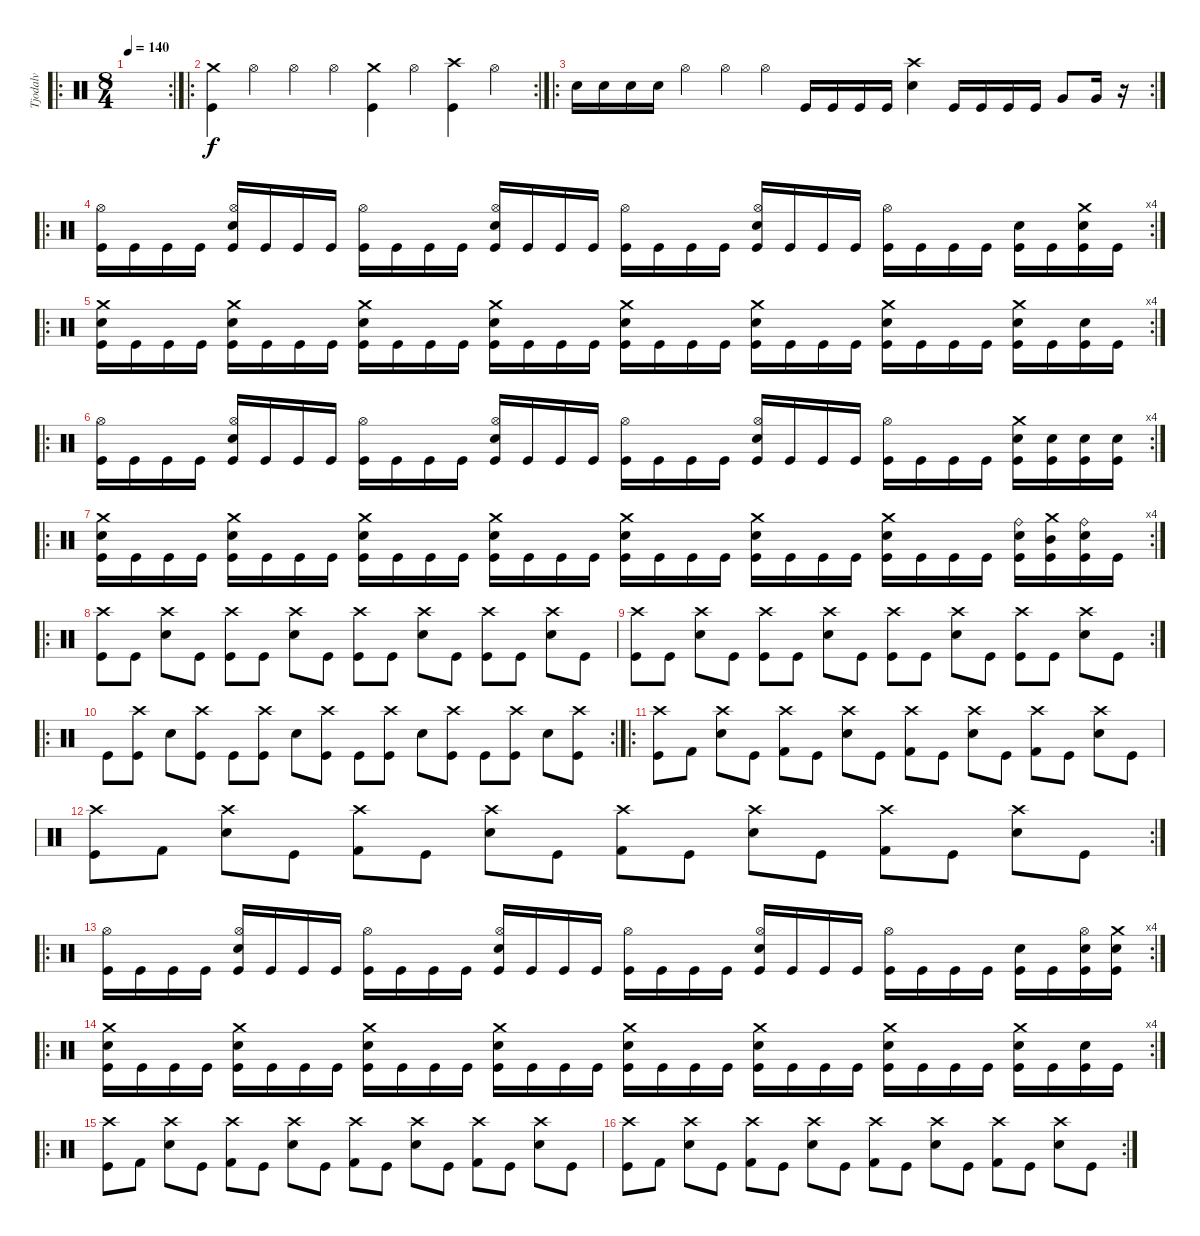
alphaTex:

\track ("Tjodalv" "Tjodalv") {instrument percussion}
\staff {score}
\articulation defaults
\ro
\rc 2
\ts (8 4)
\tempo 140
\clef neutral
\ks c
|
\ro
\rc 2
("Crash medium (hit)" "Kick (hit)").4 "Hi-Hat (open)".4 "Hi-Hat (open)".4 "Hi-Hat (open)".4 ("Crash medium (hit)" "Kick (hit)").4 "Hi-Hat (open)".4 ("Crash high (hit)" "Kick (hit)").4 "Hi-Hat (open)".4 |
\ro
\rc 2 "Electric Snare (hit)".16 "Electric Snare (hit)".16 "Electric Snare (hit)".16 "Electric Snare (hit)".16 "Hi-Hat (open)".4 "Hi-Hat (open)".4 "Hi-Hat (open)".4 "Kick (hit)".16 "Kick (hit)".16 "Kick (hit)".16 "Kick (hit)".16
("Crash high (hit)" "Electric Snare (hit)").4 "Kick (hit)".16 "Kick (hit)".16 "Kick (hit)".16 "Kick (hit)".16 "Very Low Tom (hit)".8 "Very Low Tom (hit)".16 r.16 |
\ro
\rc 4
("Hi-Hat (open)" "Kick (hit)").16 "Kick (hit)".16 "Kick (hit)".16 "Kick (hit)".16 ("Electric Snare (hit)" "Hi-Hat (open)" "Kick (hit)").16 "Kick (hit)".16 "Kick (hit)".16 "Kick (hit)".16 ("Hi-Hat (open)" "Kick (hit)").16 "Kick (hit)".16 "Kick (hit)".16 "Kick (hit)".16 ("Electric Snare (hit)" "Hi-Hat (open)" "Kick (hit)").16 "Kick (hit)".16 "Kick (hit)".16 "Kick (hit)".16 ("Hi-Hat (open)" "Kick (hit)").16 "Kick (hit)".16 "Kick (hit)".16 "Kick (hit)".16 ("Electric Snare (hit)" "Hi-Hat (open)" "Kick (hit)").16 "Kick (hit)".16 "Kick (hit)".16 "Kick (hit)".16 ("Hi-Hat (open)" "Kick (hit)").16 "Kick (hit)".16 "Kick (hit)".16 "Kick (hit)".16 ("Electric Snare (hit)" "Kick (hit)").16 "Kick (hit)".16 ("Crash medium (hit)" "Electric Snare (hit)" "Kick (hit)").16 "Kick (hit)".16 |
\ro
\rc 4
("Crash medium (hit)" "Electric Snare (hit)" "Kick (hit)").16 "Kick (hit)".16 "Kick (hit)".16 "Kick (hit)".16 ("Crash medium (hit)" "Electric Snare (hit)" "Kick (hit)").16 "Kick (hit)".16 "Kick (hit)".16 "Kick (hit)".16 ("Crash medium (hit)" "Electric Snare (hit)" "Kick (hit)").16 "Kick (hit)".16 "Kick (hit)".16 "Kick (hit)".16 ("Crash medium (hit)" "Electric Snare (hit)" "Kick (hit)").16 "Kick (hit)".16 "Kick (hit)".16 "Kick (hit)".16 ("Crash medium (hit)" "Electric Snare (hit)" "Kick (hit)").16 "Kick (hit)".16 "Kick (hit)".16 "Kick (hit)".16 ("Crash medium (hit)" "Electric Snare (hit)" "Kick (hit)").16 "Kick (hit)".16 "Kick (hit)".16 "Kick (hit)".16 ("Crash medium (hit)" "Electric Snare (hit)" "Kick (hit)").16 "Kick (hit)".16 "Kick (hit)".16 "Kick (hit)".16 ("Crash medium (hit)" "Electric Snare (hit)" "Kick (hit)").16 "Kick (hit)".16 ("Electric Snare (hit)" "Kick (hit)").16 "Kick (hit)".16 |
\ro
\rc 4
("Hi-Hat (open)" "Kick (hit)").16 "Kick (hit)".16 "Kick (hit)".16 "Kick (hit)".16 ("Electric Snare (hit)" "Hi-Hat (open)" "Kick (hit)").16 "Kick (hit)".16 "Kick (hit)".16 "Kick (hit)".16 ("Hi-Hat (open)" "Kick (hit)").16 "Kick (hit)".16 "Kick (hit)".16 "Kick (hit)".16 ("Electric Snare (hit)" "Hi-Hat (open)" "Kick (hit)").16 "Kick (hit)".16 "Kick (hit)".16 "Kick (hit)".16 ("Hi-Hat (open)" "Kick (hit)").16 "Kick (hit)".16 "Kick (hit)".16 "Kick (hit)".16 ("Electric Snare (hit)" "Hi-Hat (open)" "Kick (hit)").16 "Kick (hit)".16 "Kick (hit)".16 "Kick (hit)".16 ("Hi-Hat (open)" "Kick (hit)").16 "Kick (hit)".16 "Kick (hit)".16 "Kick (hit)".16 ("Crash medium (hit)" "Electric Snare (hit)" "Kick (hit)").16 ("Electric Snare (hit)" "Kick (hit)").16 ("Electric Snare (hit)" "Kick (hit)").16 ("Electric Snare (hit)" "Kick (hit)").16 |
\ro
\rc 4
("Crash medium (hit)" "Electric Snare (hit)" "Kick (hit)").16 "Kick (hit)".16 "Kick (hit)".16 "Kick (hit)".16 ("Crash medium (hit)" "Electric Snare (hit)" "Kick (hit)").16 "Kick (hit)".16 "Kick (hit)".16 "Kick (hit)".16 ("Crash medium (hit)" "Electric Snare (hit)" "Kick (hit)").16 "Kick (hit)".16 "Kick (hit)".16 "Kick (hit)".16 ("Crash medium (hit)" "Electric Snare (hit)" "Kick (hit)").16 "Kick (hit)".16 "Kick (hit)".16 "Kick (hit)".16 ("Crash medium (hit)" "Electric Snare (hit)" "Kick (hit)").16 "Kick (hit)".16 "Kick (hit)".16 "Kick (hit)".16 ("Crash medium (hit)" "Electric Snare (hit)" "Kick (hit)").16 "Kick (hit)".16 "Kick (hit)".16 "Kick (hit)".16 ("Crash medium (hit)" "Electric Snare (hit)" "Kick (hit)").16 "Kick (hit)".16 "Kick (hit)".16 "Kick (hit)".16 ("Ride (bell)" "Electric Snare (hit)" "Kick (hit)").16 ("Crash medium (hit)" "Mid Tom (hit)" "Kick (hit)").16 ("Ride (bell)" "Electric Snare (hit)" "Kick (hit)").16 "Kick (hit)".16 |
\ro
("Crash high (hit)" "Kick (hit)").8 "Kick (hit)".8 ("Crash high (hit)" "Electric Snare (hit)").8 "Kick (hit)".8 ("Crash high (hit)" "Kick (hit)").8 "Kick (hit)".8 ("Crash high (hit)" "Electric Snare (hit)").8 "Kick (hit)".8 ("Crash high (hit)" "Kick (hit)").8 "Kick (hit)".8 ("Crash high (hit)" "Electric Snare (hit)").8 "Kick (hit)".8 ("Crash high (hit)" "Kick (hit)").8 "Kick (hit)".8 ("Crash high (hit)" "Electric Snare (hit)").8 "Kick (hit)".8 |
\rc 2
("Crash high (hit)" "Kick (hit)").8 "Kick (hit)".8 ("Crash high (hit)" "Electric Snare (hit)").8 "Kick (hit)".8 ("Crash high (hit)" "Kick (hit)").8 "Kick (hit)".8 ("Crash high (hit)" "Electric Snare (hit)").8 "Kick (hit)".8 ("Crash high (hit)" "Kick (hit)").8 "Kick (hit)".8 ("Crash high (hit)" "Electric Snare (hit)").8 "Kick (hit)".8 ("Crash high (hit)" "Kick (hit)").8 "Kick (hit)".8 ("Crash high (hit)" "Electric Snare (hit)").8 "Kick (hit)".8 |
\ro
\rc 2 "Kick (hit)".8
("Crash high (hit)" "Kick (hit)").8 "Electric Snare (hit)".8 ("Crash high (hit)" "Kick (hit)").8 "Kick (hit)".8 ("Crash high (hit)" "Kick (hit)").8 "Electric Snare (hit)".8 ("Crash high (hit)" "Kick (hit)").8 "Kick (hit)".8 ("Crash high (hit)" "Kick (hit)").8 "Electric Snare (hit)".8 ("Crash high (hit)" "Kick (hit)").8 "Kick (hit)".8 ("Crash high (hit)" "Kick (hit)").8 "Electric Snare (hit)".8 ("Crash high (hit)" "Kick (hit)").8 |
\ro
("Crash high (hit)" "Kick (hit)").8 "Kick (hit) 2".8 ("Crash high (hit)" "Electric Snare (hit)").8 "Kick (hit)".8 ("Crash high (hit)" "Kick (hit) 2").8 "Kick (hit)".8 ("Crash high (hit)" "Electric Snare (hit)").8 "Kick (hit)".8 ("Crash high (hit)" "Kick (hit) 2").8 "Kick (hit)".8 ("Crash high (hit)" "Electric Snare (hit)").8 "Kick (hit)".8 ("Crash high (hit)" "Kick (hit) 2").8 "Kick (hit)".8 ("Crash high (hit)" "Electric Snare (hit)").8 "Kick (hit)".8 |
\rc 2
("Crash high (hit)" "Kick (hit)").8 "Kick (hit) 2".8 ("Crash high (hit)" "Electric Snare (hit)").8 "Kick (hit)".8 ("Crash high (hit)" "Kick (hit) 2").8 "Kick (hit)".8 ("Crash high (hit)" "Electric Snare (hit)").8 "Kick (hit)".8 ("Crash high (hit)" "Kick (hit) 2").8 "Kick (hit)".8 ("Crash high (hit)" "Electric Snare (hit)").8 "Kick (hit)".8 ("Crash high (hit)" "Kick (hit) 2").8 "Kick (hit)".8 ("Crash high (hit)" "Electric Snare (hit)").8 "Kick (hit)".8 |
\ro
\rc 4
("Hi-Hat (open)" "Kick (hit)").16 "Kick (hit)".16 "Kick (hit)".16 "Kick (hit)".16 ("Electric Snare (hit)" "Hi-Hat (open)" "Kick (hit)").16 "Kick (hit)".16 "Kick (hit)".16 "Kick (hit)".16 ("Hi-Hat (open)" "Kick (hit)").16 "Kick (hit)".16 "Kick (hit)".16 "Kick (hit)".16 ("Electric Snare (hit)" "Hi-Hat (open)" "Kick (hit)").16 "Kick (hit)".16 "Kick (hit)".16 "Kick (hit)".16 ("Hi-Hat (open)" "Kick (hit)").16 "Kick (hit)".16 "Kick (hit)".16 "Kick (hit)".16 ("Electric Snare (hit)" "Hi-Hat (open)" "Kick (hit)").16 "Kick (hit)".16 "Kick (hit)".16 "Kick (hit)".16 ("Hi-Hat (open)" "Kick (hit)").16 "Kick (hit)".16 "Kick (hit)".16 "Kick (hit)".16 ("Electric Snare (hit)" "Kick (hit)").16 "Kick (hit)".16 ("Electric Snare (hit)" "Hi-Hat (open)" "Kick (hit)").16 ("Crash medium (hit)" "Electric Snare (hit)" "Kick (hit)").16 |
\ro
\rc 4
("Crash medium (hit)" "Electric Snare (hit)" "Kick (hit)").16 "Kick (hit)".16 "Kick (hit)".16 "Kick (hit)".16 ("Crash medium (hit)" "Electric Snare (hit)" "Kick (hit)").16 "Kick (hit)".16 "Kick (hit)".16 "Kick (hit)".16 ("Crash medium (hit)" "Electric Snare (hit)" "Kick (hit)").16 "Kick (hit)".16 "Kick (hit)".16 "Kick (hit)".16 ("Crash medium (hit)" "Electric Snare (hit)" "Kick (hit)").16 "Kick (hit)".16 "Kick (hit)".16 "Kick (hit)".16 ("Crash medium (hit)" "Electric Snare (hit)" "Kick (hit)").16 "Kick (hit)".16 "Kick (hit)".16 "Kick (hit)".16 ("Crash medium (hit)" "Electric Snare (hit)" "Kick (hit)").16 "Kick (hit)".16 "Kick (hit)".16 "Kick (hit)".16 ("Crash medium (hit)" "Electric Snare (hit)" "Kick (hit)").16 "Kick (hit)".16 "Kick (hit)".16 "Kick (hit)".16 ("Crash medium (hit)" "Electric Snare (hit)" "Kick (hit)").16 "Kick (hit)".16 ("Electric Snare (hit)" "Kick (hit)").16 "Kick (hit)".16 |
\ro
("Crash high (hit)" "Kick (hit)").8 "Kick (hit) 2".8 ("Crash high (hit)" "Electric Snare (hit)").8 "Kick (hit)".8 ("Crash high (hit)" "Kick (hit) 2").8 "Kick (hit)".8 ("Crash high (hit)" "Electric Snare (hit)").8 "Kick (hit)".8 ("Crash high (hit)" "Kick (hit) 2").8 "Kick (hit)".8 ("Crash high (hit)" "Electric Snare (hit)").8 "Kick (hit)".8 ("Crash high (hit)" "Kick (hit) 2").8 "Kick (hit)".8 ("Crash high (hit)" "Electric Snare (hit)").8 "Kick (hit)".8 |
\rc 2
("Crash high (hit)" "Kick (hit)").8 "Kick (hit) 2".8 ("Crash high (hit)" "Electric Snare (hit)").8 "Kick (hit)".8 ("Crash high (hit)" "Kick (hit) 2").8 "Kick (hit)".8 ("Crash high (hit)" "Electric Snare (hit)").8 "Kick (hit)".8 ("Crash high (hit)" "Kick (hit) 2").8 "Kick (hit)".8 ("Crash high (hit)" "Electric Snare (hit)").8 "Kick (hit)".8 ("Crash high (hit)" "Kick (hit) 2").8 "Kick (hit)".8 ("Crash high (hit)" "Electric Snare (hit)").8 "Kick (hit)".8
